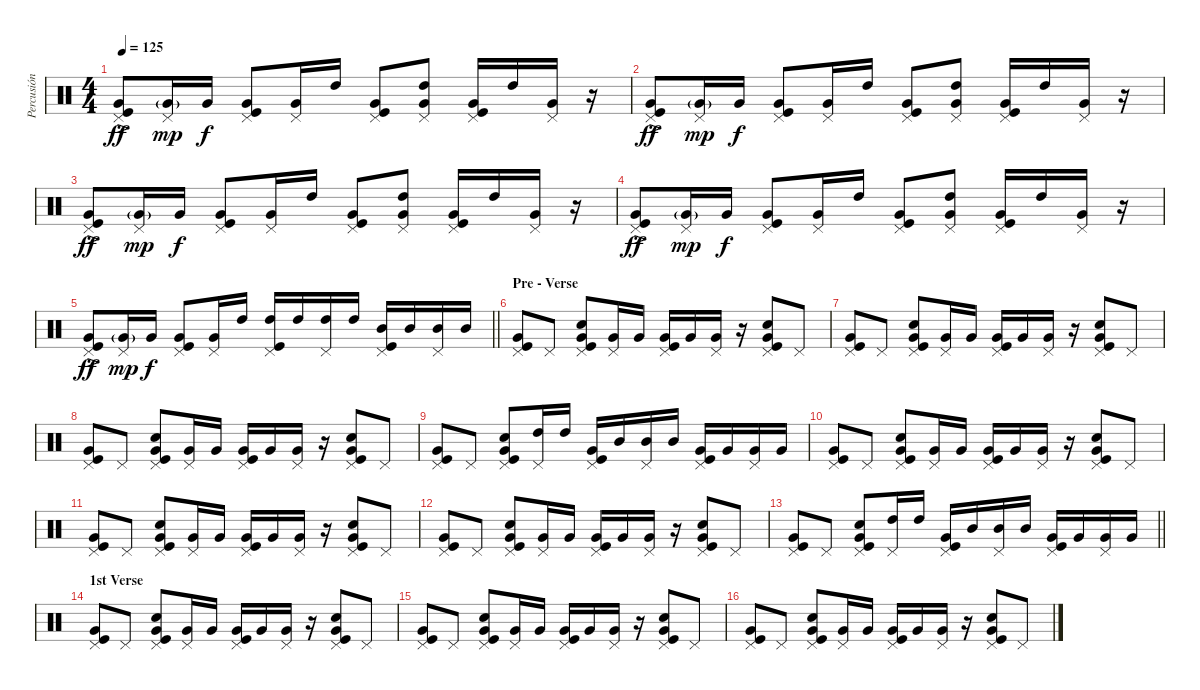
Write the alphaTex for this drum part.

\track ("Percusión" "Percusión") {instrument percussion}
\staff {score}
\articulation defaults
\ts (4 4)
\tempo 125
\clef neutral
\ks c
("Very Low Tom (hit)"{ac} "Pedal Hi-Hat (hit)" "Kick (hit)").8{dy ff} ("Very Low Tom (hit)"{g} "Pedal Hi-Hat (hit)").16{dy mp} "Very Low Tom (hit)".16{dy f} ("Very Low Tom (hit)" "Pedal Hi-Hat (hit)" "Kick (hit)").8 ("Very Low Tom (hit)" "Pedal Hi-Hat (hit)").16 "High Tom (hit)".16 ("Very Low Tom (hit)" "Pedal Hi-Hat (hit)" "Kick (hit)").8 ("Very Low Tom (hit)" "High Tom (hit)" "Pedal Hi-Hat (hit)").8 ("Very Low Tom (hit)" "Pedal Hi-Hat (hit)" "Kick (hit)").16 "High Tom (hit)".16 ("Very Low Tom (hit)" "Pedal Hi-Hat (hit)").16 r.16 |
("Very Low Tom (hit)"{ac} "Pedal Hi-Hat (hit)" "Kick (hit)").8{dy ff} ("Very Low Tom (hit)"{g} "Pedal Hi-Hat (hit)").16{dy mp} "Very Low Tom (hit)".16{dy f} ("Very Low Tom (hit)" "Pedal Hi-Hat (hit)" "Kick (hit)").8 ("Very Low Tom (hit)" "Pedal Hi-Hat (hit)").16 "High Tom (hit)".16 ("Very Low Tom (hit)" "Pedal Hi-Hat (hit)" "Kick (hit)").8 ("Very Low Tom (hit)" "High Tom (hit)" "Pedal Hi-Hat (hit)").8 ("Very Low Tom (hit)" "Pedal Hi-Hat (hit)" "Kick (hit)").16 "High Tom (hit)".16 ("Very Low Tom (hit)" "Pedal Hi-Hat (hit)").16 r.16 |
("Very Low Tom (hit)"{ac} "Pedal Hi-Hat (hit)" "Kick (hit)").8{dy ff} ("Very Low Tom (hit)"{g} "Pedal Hi-Hat (hit)").16{dy mp} "Very Low Tom (hit)".16{dy f} ("Very Low Tom (hit)" "Pedal Hi-Hat (hit)" "Kick (hit)").8 ("Very Low Tom (hit)" "Pedal Hi-Hat (hit)").16 "High Tom (hit)".16 ("Very Low Tom (hit)" "Pedal Hi-Hat (hit)" "Kick (hit)").8 ("Very Low Tom (hit)" "High Tom (hit)" "Pedal Hi-Hat (hit)").8 ("Very Low Tom (hit)" "Pedal Hi-Hat (hit)" "Kick (hit)").16 "High Tom (hit)".16 ("Very Low Tom (hit)" "Pedal Hi-Hat (hit)").16 r.16 |
("Very Low Tom (hit)"{ac} "Pedal Hi-Hat (hit)" "Kick (hit)").8{dy ff} ("Very Low Tom (hit)"{g} "Pedal Hi-Hat (hit)").16{dy mp} "Very Low Tom (hit)".16{dy f} ("Very Low Tom (hit)" "Pedal Hi-Hat (hit)" "Kick (hit)").8 ("Very Low Tom (hit)" "Pedal Hi-Hat (hit)").16 "High Tom (hit)".16 ("Very Low Tom (hit)" "Pedal Hi-Hat (hit)" "Kick (hit)").8 ("Very Low Tom (hit)" "High Tom (hit)" "Pedal Hi-Hat (hit)").8 ("Very Low Tom (hit)" "Pedal Hi-Hat (hit)" "Kick (hit)").16 "High Tom (hit)".16 ("Very Low Tom (hit)" "Pedal Hi-Hat (hit)").16 r.16 |
\barLineRight lightlight
("Very Low Tom (hit)"{ac} "Pedal Hi-Hat (hit)" "Kick (hit)").8{dy ff} ("Very Low Tom (hit)"{g} "Pedal Hi-Hat (hit)").16{dy mp} "Very Low Tom (hit)".16{dy f} ("Very Low Tom (hit)" "Pedal Hi-Hat (hit)" "Kick (hit)").8 ("Very Low Tom (hit)" "Pedal Hi-Hat (hit)").16 "High Tom (hit)".16 ("High Tom (hit)" "Pedal Hi-Hat (hit)" "Kick (hit)").16 "High Tom (hit)".16 ("High Tom (hit)" "Pedal Hi-Hat (hit)").16 "High Tom (hit)".16 ("Mid Tom (hit)" "Pedal Hi-Hat (hit)" "Kick (hit)").16 "Mid Tom (hit)".16 ("Mid Tom (hit)" "Pedal Hi-Hat (hit)").16 "Mid Tom (hit)".16 |
\section ("" "Pre - Verse")
("Very Low Tom (hit)" "Kick (hit)" "Pedal Hi-Hat (hit)").8 "Pedal Hi-Hat (hit)".8 ("Very Low Tom (hit)" "Kick (hit)" "Snare (hit) 2" "Pedal Hi-Hat (hit)").8 ("Very Low Tom (hit)" "Pedal Hi-Hat (hit)").16 "Very Low Tom (hit)".16 ("Very Low Tom (hit)" "Pedal Hi-Hat (hit)" "Kick (hit)").16 "Very Low Tom (hit)".16 ("Very Low Tom (hit)" "Pedal Hi-Hat (hit)").16 r.16 ("Snare (hit) 2" "Very Low Tom (hit)" "Pedal Hi-Hat (hit)" "Kick (hit)").8 "Pedal Hi-Hat (hit)".8 |
("Very Low Tom (hit)" "Kick (hit)" "Pedal Hi-Hat (hit)").8 "Pedal Hi-Hat (hit)".8 ("Very Low Tom (hit)" "Kick (hit)" "Snare (hit) 2" "Pedal Hi-Hat (hit)").8 ("Very Low Tom (hit)" "Pedal Hi-Hat (hit)").16 "Very Low Tom (hit)".16 ("Very Low Tom (hit)" "Pedal Hi-Hat (hit)" "Kick (hit)").16 "Very Low Tom (hit)".16 ("Very Low Tom (hit)" "Pedal Hi-Hat (hit)").16 r.16 ("Snare (hit) 2" "Very Low Tom (hit)" "Pedal Hi-Hat (hit)" "Kick (hit)").8 "Pedal Hi-Hat (hit)".8 |
("Very Low Tom (hit)" "Kick (hit)" "Pedal Hi-Hat (hit)").8 "Pedal Hi-Hat (hit)".8 ("Very Low Tom (hit)" "Kick (hit)" "Snare (hit) 2" "Pedal Hi-Hat (hit)").8 ("Very Low Tom (hit)" "Pedal Hi-Hat (hit)").16 "Very Low Tom (hit)".16 ("Very Low Tom (hit)" "Pedal Hi-Hat (hit)" "Kick (hit)").16 "Very Low Tom (hit)".16 ("Very Low Tom (hit)" "Pedal Hi-Hat (hit)").16 r.16 ("Snare (hit) 2" "Very Low Tom (hit)" "Pedal Hi-Hat (hit)" "Kick (hit)").8 "Pedal Hi-Hat (hit)".8 |
("Very Low Tom (hit)" "Pedal Hi-Hat (hit)" "Kick (hit)").8 "Pedal Hi-Hat (hit)".8 ("Very Low Tom (hit)" "Snare (hit) 2" "Pedal Hi-Hat (hit)" "Kick (hit)").8 ("High Tom (hit)" "Pedal Hi-Hat (hit)").16 "High Tom (hit)".16 ("Very Low Tom (hit)" "Pedal Hi-Hat (hit)" "Kick (hit)").16 "Mid Tom (hit)".16 ("Mid Tom (hit)" "Pedal Hi-Hat (hit)").16 "Mid Tom (hit)".16 ("Very Low Tom (hit)" "Pedal Hi-Hat (hit)" "Kick (hit)").16 "Very Low Tom (hit)".16 ("Very Low Tom (hit)" "Pedal Hi-Hat (hit)").16 "Very Low Tom (hit)".16 |
("Very Low Tom (hit)" "Kick (hit)" "Pedal Hi-Hat (hit)").8 "Pedal Hi-Hat (hit)".8 ("Very Low Tom (hit)" "Kick (hit)" "Snare (hit) 2" "Pedal Hi-Hat (hit)").8 ("Very Low Tom (hit)" "Pedal Hi-Hat (hit)").16 "Very Low Tom (hit)".16 ("Very Low Tom (hit)" "Pedal Hi-Hat (hit)" "Kick (hit)").16 "Very Low Tom (hit)".16 ("Very Low Tom (hit)" "Pedal Hi-Hat (hit)").16 r.16 ("Snare (hit) 2" "Very Low Tom (hit)" "Pedal Hi-Hat (hit)" "Kick (hit)").8 "Pedal Hi-Hat (hit)".8 |
("Very Low Tom (hit)" "Kick (hit)" "Pedal Hi-Hat (hit)").8 "Pedal Hi-Hat (hit)".8 ("Very Low Tom (hit)" "Kick (hit)" "Snare (hit) 2" "Pedal Hi-Hat (hit)").8 ("Very Low Tom (hit)" "Pedal Hi-Hat (hit)").16 "Very Low Tom (hit)".16 ("Very Low Tom (hit)" "Pedal Hi-Hat (hit)" "Kick (hit)").16 "Very Low Tom (hit)".16 ("Very Low Tom (hit)" "Pedal Hi-Hat (hit)").16 r.16 ("Snare (hit) 2" "Very Low Tom (hit)" "Pedal Hi-Hat (hit)" "Kick (hit)").8 "Pedal Hi-Hat (hit)".8 |
("Very Low Tom (hit)" "Kick (hit)" "Pedal Hi-Hat (hit)").8 "Pedal Hi-Hat (hit)".8 ("Very Low Tom (hit)" "Kick (hit)" "Snare (hit) 2" "Pedal Hi-Hat (hit)").8 ("Very Low Tom (hit)" "Pedal Hi-Hat (hit)").16 "Very Low Tom (hit)".16 ("Very Low Tom (hit)" "Pedal Hi-Hat (hit)" "Kick (hit)").16 "Very Low Tom (hit)".16 ("Very Low Tom (hit)" "Pedal Hi-Hat (hit)").16 r.16 ("Snare (hit) 2" "Very Low Tom (hit)" "Pedal Hi-Hat (hit)" "Kick (hit)").8 "Pedal Hi-Hat (hit)".8 |
\barLineRight lightlight
("Very Low Tom (hit)" "Pedal Hi-Hat (hit)" "Kick (hit)").8 "Pedal Hi-Hat (hit)".8 ("Very Low Tom (hit)" "Snare (hit) 2" "Pedal Hi-Hat (hit)" "Kick (hit)").8 ("High Tom (hit)" "Pedal Hi-Hat (hit)").16 "High Tom (hit)".16 ("Very Low Tom (hit)" "Pedal Hi-Hat (hit)" "Kick (hit)").16 "Mid Tom (hit)".16 ("Mid Tom (hit)" "Pedal Hi-Hat (hit)").16 "Mid Tom (hit)".16 ("Very Low Tom (hit)" "Pedal Hi-Hat (hit)" "Kick (hit)").16 "Very Low Tom (hit)".16 ("Very Low Tom (hit)" "Pedal Hi-Hat (hit)").16 "Very Low Tom (hit)".16 |
\section ("" "1st Verse")
("Very Low Tom (hit)" "Kick (hit)" "Pedal Hi-Hat (hit)").8 "Pedal Hi-Hat (hit)".8 ("Very Low Tom (hit)" "Kick (hit)" "Snare (hit) 2" "Pedal Hi-Hat (hit)").8 ("Very Low Tom (hit)" "Pedal Hi-Hat (hit)").16 "Very Low Tom (hit)".16 ("Very Low Tom (hit)" "Pedal Hi-Hat (hit)" "Kick (hit)").16 "Very Low Tom (hit)".16 ("Very Low Tom (hit)" "Pedal Hi-Hat (hit)").16 r.16 ("Snare (hit) 2" "Very Low Tom (hit)" "Pedal Hi-Hat (hit)" "Kick (hit)").8 "Pedal Hi-Hat (hit)".8 |
("Very Low Tom (hit)" "Kick (hit)" "Pedal Hi-Hat (hit)").8 "Pedal Hi-Hat (hit)".8 ("Very Low Tom (hit)" "Kick (hit)" "Snare (hit) 2" "Pedal Hi-Hat (hit)").8 ("Very Low Tom (hit)" "Pedal Hi-Hat (hit)").16 "Very Low Tom (hit)".16 ("Very Low Tom (hit)" "Pedal Hi-Hat (hit)" "Kick (hit)").16 "Very Low Tom (hit)".16 ("Very Low Tom (hit)" "Pedal Hi-Hat (hit)").16 r.16 ("Snare (hit) 2" "Very Low Tom (hit)" "Pedal Hi-Hat (hit)" "Kick (hit)").8 "Pedal Hi-Hat (hit)".8 |
("Very Low Tom (hit)" "Kick (hit)" "Pedal Hi-Hat (hit)").8 "Pedal Hi-Hat (hit)".8 ("Very Low Tom (hit)" "Kick (hit)" "Snare (hit) 2" "Pedal Hi-Hat (hit)").8 ("Very Low Tom (hit)" "Pedal Hi-Hat (hit)").16 "Very Low Tom (hit)".16 ("Very Low Tom (hit)" "Pedal Hi-Hat (hit)" "Kick (hit)").16 "Very Low Tom (hit)".16 ("Very Low Tom (hit)" "Pedal Hi-Hat (hit)").16 r.16 ("Snare (hit) 2" "Very Low Tom (hit)" "Pedal Hi-Hat (hit)" "Kick (hit)").8 "Pedal Hi-Hat (hit)".8
